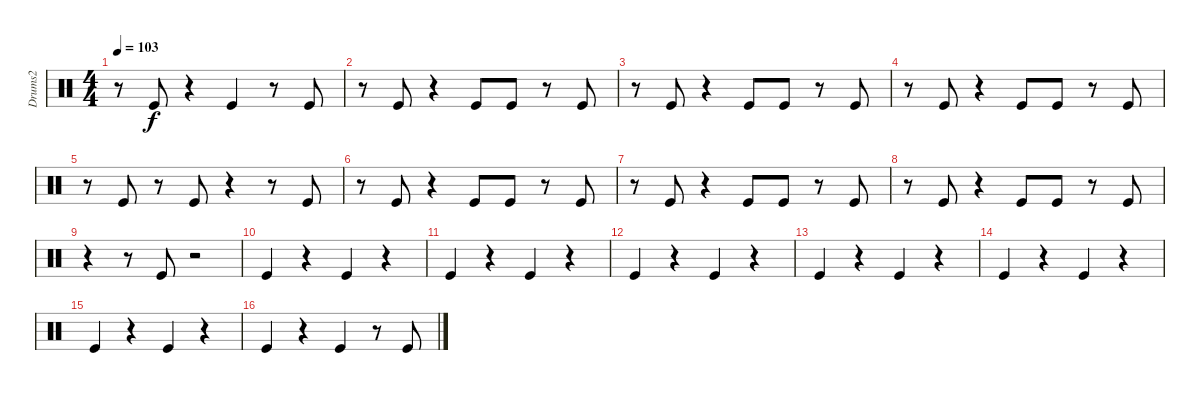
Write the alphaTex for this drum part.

\track ("Drums2" "Drums2") {instrument percussion}
\staff {score}
\articulation defaults
\ts (4 4)
\tempo 103
\clef neutral
\ks c
r.8{dy f} "Kick (hit)".8 r.4 "Kick (hit)".4 r.8 "Kick (hit)".8 |
r.8 "Kick (hit)".8 r.4 "Kick (hit)".8 "Kick (hit)".8 r.8 "Kick (hit)".8 |
r.8 "Kick (hit)".8 r.4 "Kick (hit)".8 "Kick (hit)".8 r.8 "Kick (hit)".8 |
r.8 "Kick (hit)".8 r.4 "Kick (hit)".8 "Kick (hit)".8 r.8 "Kick (hit)".8 |
r.8 "Kick (hit)".8 r.8 "Kick (hit)".8 r.4 r.8 "Kick (hit)".8 |
r.8 "Kick (hit)".8 r.4 "Kick (hit)".8 "Kick (hit)".8 r.8 "Kick (hit)".8 |
r.8 "Kick (hit)".8 r.4 "Kick (hit)".8 "Kick (hit)".8 r.8 "Kick (hit)".8 |
r.8 "Kick (hit)".8 r.4 "Kick (hit)".8 "Kick (hit)".8 r.8 "Kick (hit)".8 |
r.4 r.8 "Kick (hit)".8 r.2 |
"Kick (hit)".4 r.4 "Kick (hit)".4 r.4 |
"Kick (hit)".4 r.4 "Kick (hit)".4 r.4 |
"Kick (hit)".4 r.4 "Kick (hit)".4 r.4 |
"Kick (hit)".4 r.4 "Kick (hit)".4 r.4 |
"Kick (hit)".4 r.4 "Kick (hit)".4 r.4 |
"Kick (hit)".4 r.4 "Kick (hit)".4 r.4 |
"Kick (hit)".4 r.4 "Kick (hit)".4 r.8 "Kick (hit)".8
